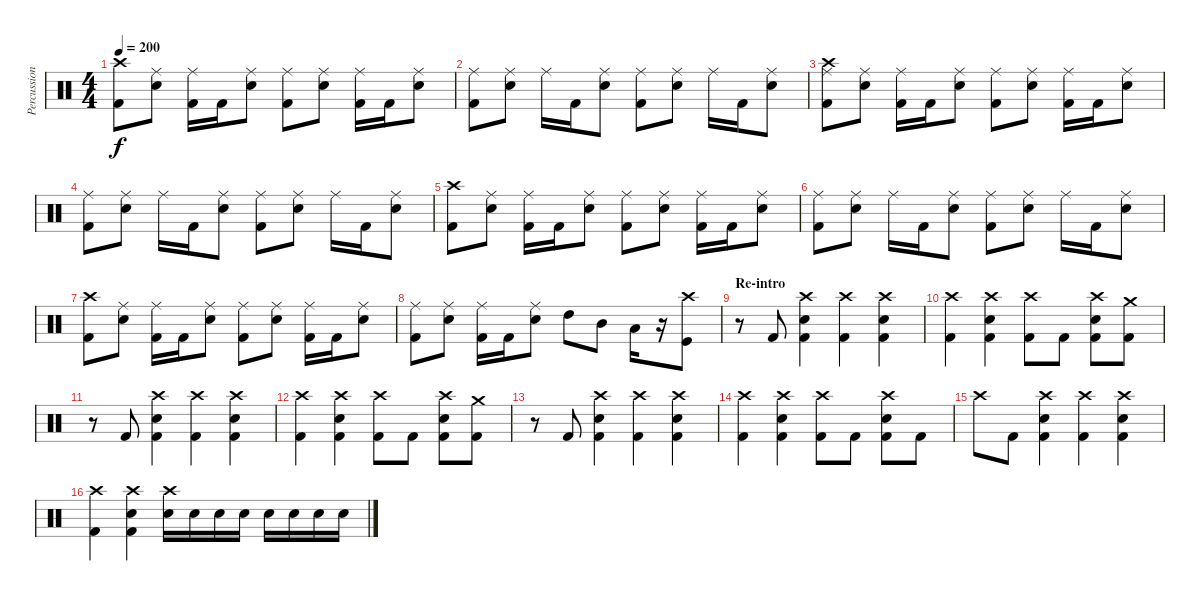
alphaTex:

\track ("Percussion" "Percussion") {instrument percussion}
\staff {score}
\articulation defaults
\ts (4 4)
\tempo 200
\clef neutral
\ks c
("Crash high (hit)" "Kick (hit) 2").8{dy f} ("Ride (middle)" "Electric Snare (hit)").8 ("Ride (middle)" "Kick (hit) 2").16 "Kick (hit) 2".16 ("Ride (middle)" "Electric Snare (hit)").8 ("Ride (middle)" "Kick (hit) 2").8 ("Ride (middle)" "Electric Snare (hit)").8 ("Ride (middle)" "Kick (hit) 2").16 "Kick (hit) 2".16 ("Ride (middle)" "Electric Snare (hit)").8 |
("Ride (middle)" "Kick (hit) 2").8 ("Ride (middle)" "Electric Snare (hit)").8 "Ride (middle)".16 "Kick (hit) 2".16 ("Ride (middle)" "Electric Snare (hit)").8 ("Ride (middle)" "Kick (hit) 2").8 ("Ride (middle)" "Electric Snare (hit)").8 "Ride (middle)".16 "Kick (hit) 2".16 ("Ride (middle)" "Electric Snare (hit)").8 |
("Crash high (hit)" "Ride (middle)" "Kick (hit) 2").8 ("Ride (middle)" "Electric Snare (hit)").8 ("Ride (middle)" "Kick (hit) 2").16 "Kick (hit) 2".16 ("Ride (middle)" "Electric Snare (hit)").8 ("Ride (middle)" "Kick (hit) 2").8 ("Ride (middle)" "Electric Snare (hit)").8 ("Ride (middle)" "Kick (hit) 2").16 "Kick (hit) 2".16 ("Ride (middle)" "Electric Snare (hit)").8 |
("Ride (middle)" "Kick (hit) 2").8 ("Ride (middle)" "Electric Snare (hit)").8 "Ride (middle)".16 "Kick (hit) 2".16 ("Ride (middle)" "Electric Snare (hit)").8 ("Ride (middle)" "Kick (hit) 2").8 ("Ride (middle)" "Electric Snare (hit)").8 "Ride (middle)".16 "Kick (hit) 2".16 ("Ride (middle)" "Electric Snare (hit)").8 |
("Crash high (hit)" "Kick (hit) 2").8 ("Ride (middle)" "Electric Snare (hit)").8 ("Ride (middle)" "Kick (hit) 2").16 "Kick (hit) 2".16 ("Ride (middle)" "Electric Snare (hit)").8 ("Ride (middle)" "Kick (hit) 2").8 ("Ride (middle)" "Electric Snare (hit)").8 ("Ride (middle)" "Kick (hit) 2").16 "Kick (hit) 2".16 ("Ride (middle)" "Electric Snare (hit)").8 |
("Ride (middle)" "Kick (hit) 2").8 ("Ride (middle)" "Electric Snare (hit)").8 "Ride (middle)".16 "Kick (hit) 2".16 ("Ride (middle)" "Electric Snare (hit)").8 ("Ride (middle)" "Kick (hit) 2").8 ("Ride (middle)" "Electric Snare (hit)").8 "Ride (middle)".16 "Kick (hit) 2".16 ("Ride (middle)" "Electric Snare (hit)").8 |
("Crash high (hit)" "Kick (hit) 2").8 ("Ride (middle)" "Electric Snare (hit)").8 ("Ride (middle)" "Kick (hit) 2").16 "Kick (hit) 2".16 ("Ride (middle)" "Electric Snare (hit)").8 ("Ride (middle)" "Kick (hit) 2").8 ("Ride (middle)" "Electric Snare (hit)").8 ("Ride (middle)" "Kick (hit) 2").16 "Kick (hit) 2".16 ("Ride (middle)" "Electric Snare (hit)").8 |
("Ride (middle)" "Kick (hit) 2").8 ("Ride (middle)" "Electric Snare (hit)").8 ("Ride (middle)" "Kick (hit) 2").16 "Kick (hit) 2".16 ("Ride (middle)" "Electric Snare (hit)").8 "High Tom (hit)".8 "Mid Tom (hit)".8 "Low Tom (hit)".16 r.16 ("Crash high (hit)" "Kick (hit)").8 |
\section ("" "Re-intro")
r.8 "Kick (hit) 2".8 ("Crash high (hit)" "Electric Snare (hit)" "Kick (hit) 2").4 ("Crash high (hit)" "Kick (hit) 2").4 ("Crash high (hit)" "Electric Snare (hit)" "Kick (hit) 2").4 |
("Crash high (hit)" "Kick (hit) 2").4 ("Crash high (hit)" "Electric Snare (hit)" "Kick (hit) 2").4 ("Crash high (hit)" "Kick (hit) 2").8 "Kick (hit) 2".8 ("Crash high (hit)" "Electric Snare (hit)" "Kick (hit) 2").8 ("Crash medium (hit)" "Kick (hit) 2").8 |
r.8 "Kick (hit) 2".8 ("Crash high (hit)" "Electric Snare (hit)" "Kick (hit) 2").4 ("Crash high (hit)" "Kick (hit) 2").4 ("Crash high (hit)" "Electric Snare (hit)" "Kick (hit) 2").4 |
("Crash high (hit)" "Kick (hit) 2").4 ("Crash high (hit)" "Electric Snare (hit)" "Kick (hit) 2").4 ("Crash high (hit)" "Kick (hit) 2").8 "Kick (hit) 2".8 ("Crash high (hit)" "Electric Snare (hit)" "Kick (hit) 2").8 ("Crash medium (hit)" "Kick (hit) 2").8 |
r.8 "Kick (hit) 2".8 ("Crash high (hit)" "Electric Snare (hit)" "Kick (hit) 2").4 ("Crash high (hit)" "Kick (hit) 2").4 ("Crash high (hit)" "Electric Snare (hit)" "Kick (hit) 2").4 |
("Crash high (hit)" "Kick (hit) 2").4 ("Crash high (hit)" "Electric Snare (hit)" "Kick (hit) 2").4 ("Crash high (hit)" "Kick (hit) 2").8 "Kick (hit) 2".8 ("Crash high (hit)" "Electric Snare (hit)" "Kick (hit) 2").8 "Kick (hit) 2".8 |
"Crash high (hit)".8 "Kick (hit) 2".8 ("Crash high (hit)" "Electric Snare (hit)" "Kick (hit) 2").4 ("Crash high (hit)" "Kick (hit) 2").4 ("Crash high (hit)" "Electric Snare (hit)" "Kick (hit) 2").4 |
("Crash high (hit)" "Kick (hit) 2").4 ("Crash high (hit)" "Electric Snare (hit)" "Kick (hit) 2").4 ("Crash high (hit)" "Electric Snare (hit)").16 "Electric Snare (hit)".16 "Electric Snare (hit)".16 "Electric Snare (hit)".16 "Electric Snare (hit)".16 "Electric Snare (hit)".16 "Electric Snare (hit)".16 "Electric Snare (hit)".16
